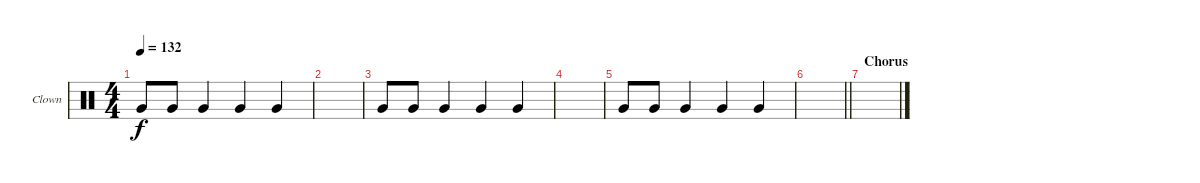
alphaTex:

\bracketExtendMode groupsimilarinstruments
\firstSystemTrackNameOrientation horizontal
\otherSystemsTrackNameOrientation horizontal
\track ("Clown" "Clown") {instrument percussion}
\staff {score}
\articulation defaults
\ts (4 4)
\tempo 132
\clef neutral
\ks c "Very Low Tom (hit)".8{dy f} "Very Low Tom (hit)".8 "Very Low Tom (hit)".4 "Very Low Tom (hit)".4 "Very Low Tom (hit)".4
|
|
"Very Low Tom (hit)".8 "Very Low Tom (hit)".8 "Very Low Tom (hit)".4 "Very Low Tom (hit)".4 "Very Low Tom (hit)".4 |
|
"Very Low Tom (hit)".8 "Very Low Tom (hit)".8 "Very Low Tom (hit)".4 "Very Low Tom (hit)".4 "Very Low Tom (hit)".4 |
\barLineRight lightlight
|
\section ("" "Chorus")
